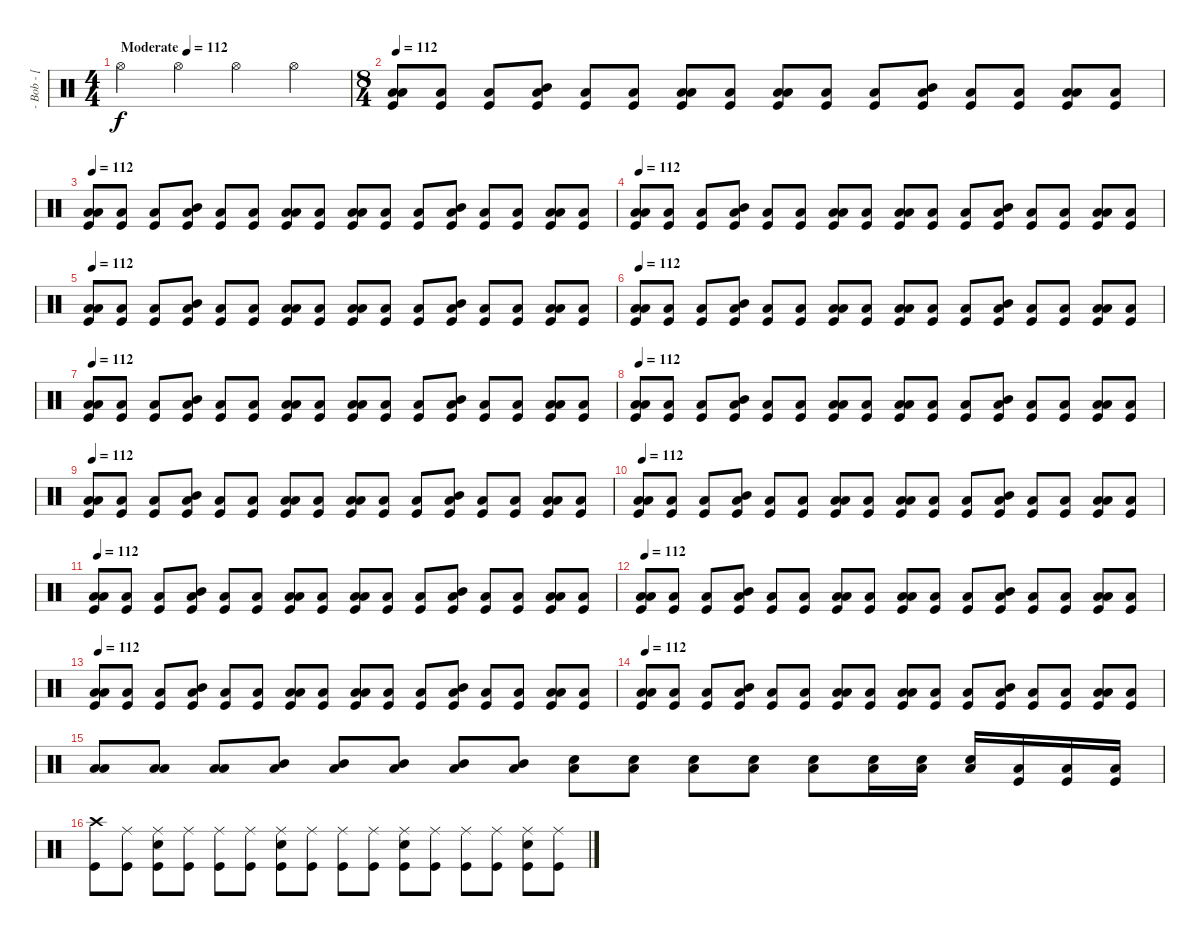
\track ("- Bob - [ Drum ]" "- Bob - [ ") {instrument percussion}
\staff {score}
\articulation defaults
\ts (4 4)
\tempo (112 "Moderate")
\clef neutral
\ks c "Hi-Hat (open)".4{dy f} "Hi-Hat (open)".4 "Hi-Hat (open)".4 "Hi-Hat (open)".4
|
\ts (8 4)
\tempo 112
("Low Floor Tom (hit)" "Low Tom (hit)" "Kick (hit)").8 ("Low Floor Tom (hit)" "Kick (hit)").8 ("Low Floor Tom (hit)" "Kick (hit)").8 ("Low Floor Tom (hit)" "Mid Tom (hit)" "Kick (hit)").8 ("Low Floor Tom (hit)" "Kick (hit)").8 ("Low Floor Tom (hit)" "Kick (hit)").8 ("Low Floor Tom (hit)" "Low Tom (hit)" "Kick (hit)").8 ("Low Floor Tom (hit)" "Kick (hit)").8 ("Low Floor Tom (hit)" "Low Tom (hit)" "Kick (hit)").8 ("Low Floor Tom (hit)" "Kick (hit)").8 ("Low Floor Tom (hit)" "Kick (hit)").8 ("Low Floor Tom (hit)" "Mid Tom (hit)" "Kick (hit)").8 ("Low Floor Tom (hit)" "Kick (hit)").8 ("Low Floor Tom (hit)" "Kick (hit)").8 ("Low Floor Tom (hit)" "Low Tom (hit)" "Kick (hit)").8 ("Low Floor Tom (hit)" "Kick (hit)").8 |
\tempo 112
("Low Floor Tom (hit)" "Low Tom (hit)" "Kick (hit)").8 ("Low Floor Tom (hit)" "Kick (hit)").8 ("Low Floor Tom (hit)" "Kick (hit)").8 ("Low Floor Tom (hit)" "Mid Tom (hit)" "Kick (hit)").8 ("Low Floor Tom (hit)" "Kick (hit)").8 ("Low Floor Tom (hit)" "Kick (hit)").8 ("Low Floor Tom (hit)" "Low Tom (hit)" "Kick (hit)").8 ("Low Floor Tom (hit)" "Kick (hit)").8 ("Low Floor Tom (hit)" "Low Tom (hit)" "Kick (hit)").8 ("Low Floor Tom (hit)" "Kick (hit)").8 ("Low Floor Tom (hit)" "Kick (hit)").8 ("Low Floor Tom (hit)" "Mid Tom (hit)" "Kick (hit)").8 ("Low Floor Tom (hit)" "Kick (hit)").8 ("Low Floor Tom (hit)" "Kick (hit)").8 ("Low Floor Tom (hit)" "Low Tom (hit)" "Kick (hit)").8 ("Low Floor Tom (hit)" "Kick (hit)").8 |
\tempo 112
("Low Floor Tom (hit)" "Low Tom (hit)" "Kick (hit)").8 ("Low Floor Tom (hit)" "Kick (hit)").8 ("Low Floor Tom (hit)" "Kick (hit)").8 ("Low Floor Tom (hit)" "Mid Tom (hit)" "Kick (hit)").8 ("Low Floor Tom (hit)" "Kick (hit)").8 ("Low Floor Tom (hit)" "Kick (hit)").8 ("Low Floor Tom (hit)" "Low Tom (hit)" "Kick (hit)").8 ("Low Floor Tom (hit)" "Kick (hit)").8 ("Low Floor Tom (hit)" "Low Tom (hit)" "Kick (hit)").8 ("Low Floor Tom (hit)" "Kick (hit)").8 ("Low Floor Tom (hit)" "Kick (hit)").8 ("Low Floor Tom (hit)" "Mid Tom (hit)" "Kick (hit)").8 ("Low Floor Tom (hit)" "Kick (hit)").8 ("Low Floor Tom (hit)" "Kick (hit)").8 ("Low Floor Tom (hit)" "Low Tom (hit)" "Kick (hit)").8 ("Low Floor Tom (hit)" "Kick (hit)").8 |
\tempo 112
("Low Floor Tom (hit)" "Low Tom (hit)" "Kick (hit)").8 ("Low Floor Tom (hit)" "Kick (hit)").8 ("Low Floor Tom (hit)" "Kick (hit)").8 ("Low Floor Tom (hit)" "Mid Tom (hit)" "Kick (hit)").8 ("Low Floor Tom (hit)" "Kick (hit)").8 ("Low Floor Tom (hit)" "Kick (hit)").8 ("Low Floor Tom (hit)" "Low Tom (hit)" "Kick (hit)").8 ("Low Floor Tom (hit)" "Kick (hit)").8 ("Low Floor Tom (hit)" "Low Tom (hit)" "Kick (hit)").8 ("Low Floor Tom (hit)" "Kick (hit)").8 ("Low Floor Tom (hit)" "Kick (hit)").8 ("Low Floor Tom (hit)" "Mid Tom (hit)" "Kick (hit)").8 ("Low Floor Tom (hit)" "Kick (hit)").8 ("Low Floor Tom (hit)" "Kick (hit)").8 ("Low Floor Tom (hit)" "Low Tom (hit)" "Kick (hit)").8 ("Low Floor Tom (hit)" "Kick (hit)").8 |
\tempo 112
("Low Floor Tom (hit)" "Low Tom (hit)" "Kick (hit)").8 ("Low Floor Tom (hit)" "Kick (hit)").8 ("Low Floor Tom (hit)" "Kick (hit)").8 ("Low Floor Tom (hit)" "Mid Tom (hit)" "Kick (hit)").8 ("Low Floor Tom (hit)" "Kick (hit)").8 ("Low Floor Tom (hit)" "Kick (hit)").8 ("Low Floor Tom (hit)" "Low Tom (hit)" "Kick (hit)").8 ("Low Floor Tom (hit)" "Kick (hit)").8 ("Low Floor Tom (hit)" "Low Tom (hit)" "Kick (hit)").8 ("Low Floor Tom (hit)" "Kick (hit)").8 ("Low Floor Tom (hit)" "Kick (hit)").8 ("Low Floor Tom (hit)" "Mid Tom (hit)" "Kick (hit)").8 ("Low Floor Tom (hit)" "Kick (hit)").8 ("Low Floor Tom (hit)" "Kick (hit)").8 ("Low Floor Tom (hit)" "Low Tom (hit)" "Kick (hit)").8 ("Low Floor Tom (hit)" "Kick (hit)").8 |
\tempo 112
("Low Floor Tom (hit)" "Low Tom (hit)" "Kick (hit)").8 ("Low Floor Tom (hit)" "Kick (hit)").8 ("Low Floor Tom (hit)" "Kick (hit)").8 ("Low Floor Tom (hit)" "Mid Tom (hit)" "Kick (hit)").8 ("Low Floor Tom (hit)" "Kick (hit)").8 ("Low Floor Tom (hit)" "Kick (hit)").8 ("Low Floor Tom (hit)" "Low Tom (hit)" "Kick (hit)").8 ("Low Floor Tom (hit)" "Kick (hit)").8 ("Low Floor Tom (hit)" "Low Tom (hit)" "Kick (hit)").8 ("Low Floor Tom (hit)" "Kick (hit)").8 ("Low Floor Tom (hit)" "Kick (hit)").8 ("Low Floor Tom (hit)" "Mid Tom (hit)" "Kick (hit)").8 ("Low Floor Tom (hit)" "Kick (hit)").8 ("Low Floor Tom (hit)" "Kick (hit)").8 ("Low Floor Tom (hit)" "Low Tom (hit)" "Kick (hit)").8 ("Low Floor Tom (hit)" "Kick (hit)").8 |
\tempo 112
("Low Floor Tom (hit)" "Low Tom (hit)" "Kick (hit)").8 ("Low Floor Tom (hit)" "Kick (hit)").8 ("Low Floor Tom (hit)" "Kick (hit)").8 ("Low Floor Tom (hit)" "Mid Tom (hit)" "Kick (hit)").8 ("Low Floor Tom (hit)" "Kick (hit)").8 ("Low Floor Tom (hit)" "Kick (hit)").8 ("Low Floor Tom (hit)" "Low Tom (hit)" "Kick (hit)").8 ("Low Floor Tom (hit)" "Kick (hit)").8 ("Low Floor Tom (hit)" "Low Tom (hit)" "Kick (hit)").8 ("Low Floor Tom (hit)" "Kick (hit)").8 ("Low Floor Tom (hit)" "Kick (hit)").8 ("Low Floor Tom (hit)" "Mid Tom (hit)" "Kick (hit)").8 ("Low Floor Tom (hit)" "Kick (hit)").8 ("Low Floor Tom (hit)" "Kick (hit)").8 ("Low Floor Tom (hit)" "Low Tom (hit)" "Kick (hit)").8 ("Low Floor Tom (hit)" "Kick (hit)").8 |
\tempo 112
("Low Floor Tom (hit)" "Low Tom (hit)" "Kick (hit)").8 ("Low Floor Tom (hit)" "Kick (hit)").8 ("Low Floor Tom (hit)" "Kick (hit)").8 ("Low Floor Tom (hit)" "Mid Tom (hit)" "Kick (hit)").8 ("Low Floor Tom (hit)" "Kick (hit)").8 ("Low Floor Tom (hit)" "Kick (hit)").8 ("Low Floor Tom (hit)" "Low Tom (hit)" "Kick (hit)").8 ("Low Floor Tom (hit)" "Kick (hit)").8 ("Low Floor Tom (hit)" "Low Tom (hit)" "Kick (hit)").8 ("Low Floor Tom (hit)" "Kick (hit)").8 ("Low Floor Tom (hit)" "Kick (hit)").8 ("Low Floor Tom (hit)" "Mid Tom (hit)" "Kick (hit)").8 ("Low Floor Tom (hit)" "Kick (hit)").8 ("Low Floor Tom (hit)" "Kick (hit)").8 ("Low Floor Tom (hit)" "Low Tom (hit)" "Kick (hit)").8 ("Low Floor Tom (hit)" "Kick (hit)").8 |
\tempo 112
("Low Floor Tom (hit)" "Low Tom (hit)" "Kick (hit)").8 ("Low Floor Tom (hit)" "Kick (hit)").8 ("Low Floor Tom (hit)" "Kick (hit)").8 ("Low Floor Tom (hit)" "Mid Tom (hit)" "Kick (hit)").8 ("Low Floor Tom (hit)" "Kick (hit)").8 ("Low Floor Tom (hit)" "Kick (hit)").8 ("Low Floor Tom (hit)" "Low Tom (hit)" "Kick (hit)").8 ("Low Floor Tom (hit)" "Kick (hit)").8 ("Low Floor Tom (hit)" "Low Tom (hit)" "Kick (hit)").8 ("Low Floor Tom (hit)" "Kick (hit)").8 ("Low Floor Tom (hit)" "Kick (hit)").8 ("Low Floor Tom (hit)" "Mid Tom (hit)" "Kick (hit)").8 ("Low Floor Tom (hit)" "Kick (hit)").8 ("Low Floor Tom (hit)" "Kick (hit)").8 ("Low Floor Tom (hit)" "Low Tom (hit)" "Kick (hit)").8 ("Low Floor Tom (hit)" "Kick (hit)").8 |
\tempo 112
("Low Floor Tom (hit)" "Low Tom (hit)" "Kick (hit)").8 ("Low Floor Tom (hit)" "Kick (hit)").8 ("Low Floor Tom (hit)" "Kick (hit)").8 ("Low Floor Tom (hit)" "Mid Tom (hit)" "Kick (hit)").8 ("Low Floor Tom (hit)" "Kick (hit)").8 ("Low Floor Tom (hit)" "Kick (hit)").8 ("Low Floor Tom (hit)" "Low Tom (hit)" "Kick (hit)").8 ("Low Floor Tom (hit)" "Kick (hit)").8 ("Low Floor Tom (hit)" "Low Tom (hit)" "Kick (hit)").8 ("Low Floor Tom (hit)" "Kick (hit)").8 ("Low Floor Tom (hit)" "Kick (hit)").8 ("Low Floor Tom (hit)" "Mid Tom (hit)" "Kick (hit)").8 ("Low Floor Tom (hit)" "Kick (hit)").8 ("Low Floor Tom (hit)" "Kick (hit)").8 ("Low Floor Tom (hit)" "Low Tom (hit)" "Kick (hit)").8 ("Low Floor Tom (hit)" "Kick (hit)").8 |
\tempo 112
("Low Floor Tom (hit)" "Low Tom (hit)" "Kick (hit)").8 ("Low Floor Tom (hit)" "Kick (hit)").8 ("Low Floor Tom (hit)" "Kick (hit)").8 ("Low Floor Tom (hit)" "Mid Tom (hit)" "Kick (hit)").8 ("Low Floor Tom (hit)" "Kick (hit)").8 ("Low Floor Tom (hit)" "Kick (hit)").8 ("Low Floor Tom (hit)" "Low Tom (hit)" "Kick (hit)").8 ("Low Floor Tom (hit)" "Kick (hit)").8 ("Low Floor Tom (hit)" "Low Tom (hit)" "Kick (hit)").8 ("Low Floor Tom (hit)" "Kick (hit)").8 ("Low Floor Tom (hit)" "Kick (hit)").8 ("Low Floor Tom (hit)" "Mid Tom (hit)" "Kick (hit)").8 ("Low Floor Tom (hit)" "Kick (hit)").8 ("Low Floor Tom (hit)" "Kick (hit)").8 ("Low Floor Tom (hit)" "Low Tom (hit)" "Kick (hit)").8 ("Low Floor Tom (hit)" "Kick (hit)").8 |
\tempo 112
("Low Floor Tom (hit)" "Low Tom (hit)" "Kick (hit)").8 ("Low Floor Tom (hit)" "Kick (hit)").8 ("Low Floor Tom (hit)" "Kick (hit)").8 ("Low Floor Tom (hit)" "Mid Tom (hit)" "Kick (hit)").8 ("Low Floor Tom (hit)" "Kick (hit)").8 ("Low Floor Tom (hit)" "Kick (hit)").8 ("Low Floor Tom (hit)" "Low Tom (hit)" "Kick (hit)").8 ("Low Floor Tom (hit)" "Kick (hit)").8 ("Low Floor Tom (hit)" "Low Tom (hit)" "Kick (hit)").8 ("Low Floor Tom (hit)" "Kick (hit)").8 ("Low Floor Tom (hit)" "Kick (hit)").8 ("Low Floor Tom (hit)" "Mid Tom (hit)" "Kick (hit)").8 ("Low Floor Tom (hit)" "Kick (hit)").8 ("Low Floor Tom (hit)" "Kick (hit)").8 ("Low Floor Tom (hit)" "Low Tom (hit)" "Kick (hit)").8 ("Low Floor Tom (hit)" "Kick (hit)").8 |
\tempo 112
("Low Floor Tom (hit)" "Low Tom (hit)" "Kick (hit)").8 ("Low Floor Tom (hit)" "Kick (hit)").8 ("Low Floor Tom (hit)" "Kick (hit)").8 ("Low Floor Tom (hit)" "Mid Tom (hit)" "Kick (hit)").8 ("Low Floor Tom (hit)" "Kick (hit)").8 ("Low Floor Tom (hit)" "Kick (hit)").8 ("Low Floor Tom (hit)" "Low Tom (hit)" "Kick (hit)").8 ("Low Floor Tom (hit)" "Kick (hit)").8 ("Low Floor Tom (hit)" "Low Tom (hit)" "Kick (hit)").8 ("Low Floor Tom (hit)" "Kick (hit)").8 ("Low Floor Tom (hit)" "Kick (hit)").8 ("Low Floor Tom (hit)" "Mid Tom (hit)" "Kick (hit)").8 ("Low Floor Tom (hit)" "Kick (hit)").8 ("Low Floor Tom (hit)" "Kick (hit)").8 ("Low Floor Tom (hit)" "Low Tom (hit)" "Kick (hit)").8 ("Low Floor Tom (hit)" "Kick (hit)").8 |
("Low Floor Tom (hit)" "Low Tom (hit)").8 ("Low Floor Tom (hit)" "Low Tom (hit)").8 ("Low Floor Tom (hit)" "Low Tom (hit)").8 ("Low Floor Tom (hit)" "Mid Tom (hit)").8 ("Low Floor Tom (hit)" "Mid Tom (hit)").8 ("Low Floor Tom (hit)" "Mid Tom (hit)").8 ("Low Floor Tom (hit)" "Mid Tom (hit)").8 ("Low Floor Tom (hit)" "Mid Tom (hit)").8 ("Low Floor Tom (hit)" "Snare (hit) 2").8 ("Low Floor Tom (hit)" "Snare (hit) 2").8 ("Low Floor Tom (hit)" "Snare (hit) 2").8 ("Low Floor Tom (hit)" "Snare (hit) 2").8 ("Low Floor Tom (hit)" "Snare (hit) 2").8 ("Low Floor Tom (hit)" "Snare (hit) 2").16 ("Low Floor Tom (hit)" "Snare (hit) 2").16 ("Low Floor Tom (hit)" "Snare (hit) 2").16 ("Low Floor Tom (hit)" "Kick (hit)").16 ("Low Floor Tom (hit)" "Kick (hit)").16 ("Low Floor Tom (hit)" "Kick (hit)").16 |
("Kick (hit)" "Crash high (hit)").8 ("Kick (hit)" "Ride (middle)").8 ("Kick (hit)" "Snare (hit) 2" "Ride (middle)").8 ("Kick (hit)" "Ride (middle)").8 ("Kick (hit)" "Ride (middle)").8 ("Kick (hit)" "Ride (middle)").8 ("Kick (hit)" "Snare (hit) 2" "Ride (middle)").8 ("Kick (hit)" "Ride (middle)").8 ("Kick (hit)" "Ride (middle)").8 ("Kick (hit)" "Ride (middle)").8 ("Kick (hit)" "Snare (hit) 2" "Ride (middle)").8 ("Kick (hit)" "Ride (middle)").8 ("Kick (hit)" "Ride (middle)").8 ("Kick (hit)" "Ride (middle)").8 ("Kick (hit)" "Snare (hit) 2" "Ride (middle)").8 ("Kick (hit)" "Ride (middle)").8
